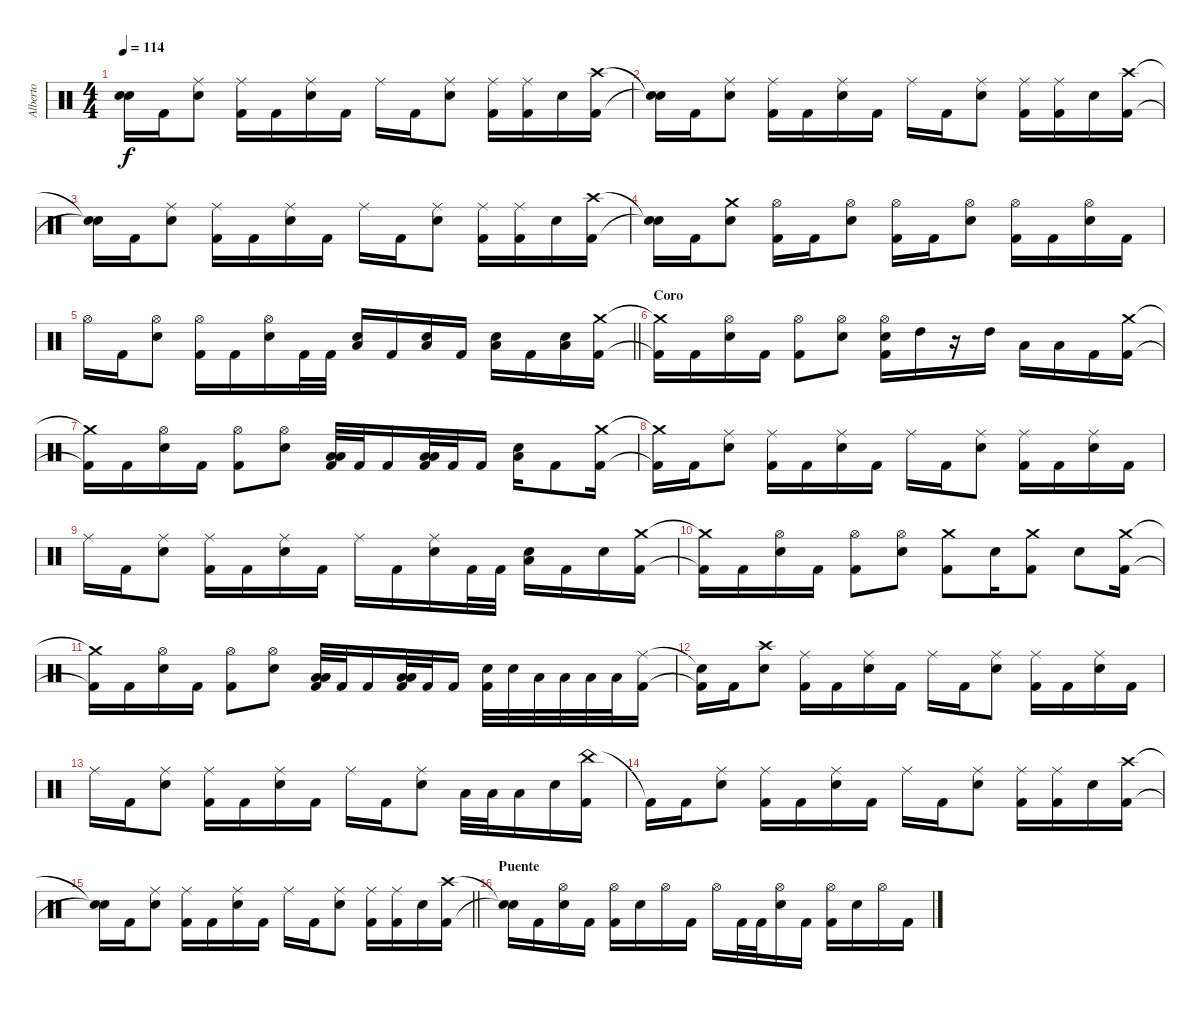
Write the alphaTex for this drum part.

\track ("Alberto" "Alberto") {instrument percussion}
\staff
\articulation defaults
\ts (4 4)
\tempo 114
\clef neutral
\ks c
("Snare (hit)"{t} "Snare (hit)"{t}).16{dy f} "Kick (hit) 2".16 ("Ride (middle)" "Electric Snare (hit)").8 ("Ride (middle)" "Kick (hit) 2").16 "Kick (hit) 2".16 ("Ride (middle)" "Electric Snare (hit)").16 "Kick (hit) 2".16 "Ride (middle)".16 "Kick (hit) 2".16 ("Ride (middle)" "Electric Snare (hit)").8 ("Ride (middle)" "Kick (hit) 2").16 ("Ride (middle)" "Kick (hit) 2").16 "Electric Snare (hit)".16 ("Crash high (hit)" "Kick (hit) 2").16 |
("Snare (hit)"{t} "Snare (hit)"{t}).16 "Kick (hit) 2".16 ("Ride (middle)" "Electric Snare (hit)").8 ("Ride (middle)" "Kick (hit) 2").16 "Kick (hit) 2".16 ("Ride (middle)" "Electric Snare (hit)").16 "Kick (hit) 2".16 "Ride (middle)".16 "Kick (hit) 2".16 ("Ride (middle)" "Electric Snare (hit)").8 ("Ride (middle)" "Kick (hit) 2").16 ("Ride (middle)" "Kick (hit) 2").16 "Electric Snare (hit)".16 ("Crash high (hit)" "Kick (hit) 2").16 |
("Snare (hit)"{t} "Snare (hit)"{t}).16 "Kick (hit) 2".16 ("Ride (middle)" "Electric Snare (hit)").8 ("Ride (middle)" "Kick (hit) 2").16 "Kick (hit) 2".16 ("Ride (middle)" "Electric Snare (hit)").16 "Kick (hit) 2".16 "Ride (middle)".16 "Kick (hit) 2".16 ("Ride (middle)" "Electric Snare (hit)").8 ("Ride (middle)" "Kick (hit) 2").16 ("Ride (middle)" "Kick (hit) 2").16 "Electric Snare (hit)".16 ("Crash high (hit)" "Kick (hit) 2").16 |
("Snare (hit)"{t} "Snare (hit)"{t}).16 "Kick (hit) 2".16 ("Crash medium (hit)" "Electric Snare (hit)").8 ("Hi-Hat (open)" "Kick (hit) 2").16 "Kick (hit) 2".16 ("Hi-Hat (open)" "Electric Snare (hit)").8 ("Hi-Hat (open)" "Kick (hit) 2").16 "Kick (hit) 2".16 ("Hi-Hat (open)" "Electric Snare (hit)").8 ("Hi-Hat (open)" "Kick (hit) 2").16 "Kick (hit) 2".16 ("Hi-Hat (open)" "Electric Snare (hit)").16 "Kick (hit) 2".16 |
\barLineRight lightlight "Hi-Hat (open)".16 "Kick (hit) 2".16
("Hi-Hat (open)" "Electric Snare (hit)").8 ("Hi-Hat (open)" "Kick (hit) 2").16 "Kick (hit) 2".16 ("Hi-Hat (open)" "Electric Snare (hit)").16 "Kick (hit) 2".32 "Kick (hit) 2".32 ("Electric Snare (hit)" "Low Floor Tom (hit)").16 "Kick (hit) 2".16 ("Electric Snare (hit)" "Low Floor Tom (hit)").16 "Kick (hit) 2".16 ("Electric Snare (hit)" "Low Floor Tom (hit)").16 "Kick (hit) 2".16 ("Electric Snare (hit)" "Low Floor Tom (hit)").16 ("Crash medium (hit)" "Kick (hit) 2").16 |
\section ("" "Coro")
("Crash medium (hit)"{t} "Kick (hit) 2"{t}).16 "Kick (hit) 2".16 ("Hi-Hat (open)" "Electric Snare (hit)").16 "Kick (hit) 2".16 ("Hi-Hat (open)" "Kick (hit) 2").8 ("Hi-Hat (open)" "Electric Snare (hit)").8 ("Hi-Hat (open)" "Electric Snare (hit)" "Kick (hit) 2").16 "High Tom (hit)".16 r.16 "High Tom (hit)".16 "Low Tom (hit)".16 "Low Tom (hit)".16 "Kick (hit) 2".16 ("Crash medium (hit)" "Kick (hit) 2").16 |
("Crash medium (hit)"{t} "Kick (hit) 2"{t}).16 "Kick (hit) 2".16 ("Hi-Hat (open)" "Electric Snare (hit)").16 "Kick (hit) 2".16 ("Hi-Hat (open)" "Kick (hit) 2").8 ("Hi-Hat (open)" "Electric Snare (hit)").8 ("Low Tom (hit)" "Low Floor Tom (hit)" "Kick (hit) 2").32 "Kick (hit) 2".32 "Kick (hit) 2".16 ("Low Tom (hit)" "Low Floor Tom (hit)" "Kick (hit) 2").32 "Kick (hit) 2".32 "Kick (hit) 2".16 ("Electric Snare (hit)" "Low Floor Tom (hit)").16 "Kick (hit) 2".8 ("Crash medium (hit)" "Kick (hit) 2").16 |
("Crash medium (hit)"{t} "Kick (hit) 2"{t}).16 "Kick (hit) 2".16 ("Ride (middle)" "Electric Snare (hit)").8 ("Ride (middle)" "Kick (hit) 2").16 "Kick (hit) 2".16 ("Ride (middle)" "Electric Snare (hit)").16 "Kick (hit) 2".16 "Ride (middle)".16 "Kick (hit) 2".16 ("Ride (middle)" "Electric Snare (hit)").8 ("Ride (middle)" "Kick (hit) 2").16 "Kick (hit) 2".16 ("Ride (middle)" "Electric Snare (hit)").16 "Kick (hit) 2".16 |
"Ride (middle)".16 "Kick (hit) 2".16 ("Ride (middle)" "Electric Snare (hit)").8 ("Ride (middle)" "Kick (hit) 2").16 "Kick (hit) 2".16 ("Ride (middle)" "Electric Snare (hit)").16 "Kick (hit) 2".16 "Ride (middle)".16 "Kick (hit) 2".16 ("Ride (middle)" "Electric Snare (hit)").16 "Kick (hit) 2".32 "Kick (hit) 2".32 ("Electric Snare (hit)" "Low Floor Tom (hit)").16 "Kick (hit) 2".16 "Electric Snare (hit)".16 ("Crash medium (hit)" "Kick (hit) 2").16 |
("Crash medium (hit)"{t} "Kick (hit) 2"{t}).16 "Kick (hit) 2".16 ("Hi-Hat (open)" "Electric Snare (hit)").16 "Kick (hit) 2".16 ("Hi-Hat (open)" "Kick (hit) 2").8 ("Hi-Hat (open)" "Electric Snare (hit)").8 ("Crash medium (hit)" "Kick (hit) 2").8 "Electric Snare (hit)".16 ("Crash medium (hit)" "Kick (hit) 2").8 "Electric Snare (hit)".8 ("Crash medium (hit)" "Kick (hit) 2").16 |
("Crash medium (hit)"{t} "Kick (hit) 2"{t}).16 "Kick (hit) 2".16 ("Hi-Hat (open)" "Electric Snare (hit)").16 "Kick (hit) 2".16 ("Hi-Hat (open)" "Kick (hit) 2").8 ("Hi-Hat (open)" "Electric Snare (hit)").8 ("Low Tom (hit)" "Low Floor Tom (hit)" "Kick (hit) 2").32 "Kick (hit) 2".32 "Kick (hit) 2".16 ("Low Tom (hit)" "Low Floor Tom (hit)" "Kick (hit) 2").32 "Kick (hit) 2".32 "Kick (hit) 2".16 ("Electric Snare (hit)" "Kick (hit) 2").32 "Electric Snare (hit)".32 "Low Tom (hit)".32 "Low Tom (hit)".32 "Low Floor Tom (hit)".32 "Low Floor Tom (hit)".32 ("Ride (middle)" "Kick (hit) 2").16 |
("Snare (hit)"{t} "Kick (hit) 2"{t}).16 "Kick (hit) 2".16 ("Crash high (hit)" "Electric Snare (hit)").8 ("Ride (middle)" "Kick (hit) 2").16 "Kick (hit) 2".16 ("Ride (middle)" "Electric Snare (hit)").16 "Kick (hit) 2".16 "Ride (middle)".16 "Kick (hit) 2".16 ("Ride (middle)" "Electric Snare (hit)").8 ("Ride (middle)" "Kick (hit) 2").16 "Kick (hit) 2".16 ("Ride (middle)" "Electric Snare (hit)").16 "Kick (hit) 2".16 |
"Ride (middle)".16 "Kick (hit) 2".16 ("Ride (middle)" "Electric Snare (hit)").8 ("Ride (middle)" "Kick (hit) 2").16 "Kick (hit) 2".16 ("Ride (middle)" "Electric Snare (hit)").16 "Kick (hit) 2".16 "Ride (middle)".16 "Kick (hit) 2".16 ("Ride (middle)" "Electric Snare (hit)").8 "Low Tom (hit)".32 "Low Tom (hit)".32 "Low Floor Tom (hit)".16 "Electric Snare (hit)".16 ("China (hit)" "Kick (hit) 2").16 |
"Kick (hit) 2"{t}.16 "Kick (hit) 2".16 ("Ride (middle)" "Electric Snare (hit)").8 ("Ride (middle)" "Kick (hit) 2").16 "Kick (hit) 2".16 ("Ride (middle)" "Electric Snare (hit)").16 "Kick (hit) 2".16 "Ride (middle)".16 "Kick (hit) 2".16 ("Ride (middle)" "Electric Snare (hit)").8 ("Ride (middle)" "Kick (hit) 2").16 ("Ride (middle)" "Kick (hit) 2").16 "Electric Snare (hit)".16 ("Crash high (hit)" "Kick (hit) 2").16 |
\barLineRight lightlight
("Snare (hit)"{t} "Snare (hit)"{t}).16 "Kick (hit) 2".16 ("Ride (middle)" "Electric Snare (hit)").8 ("Ride (middle)" "Kick (hit) 2").16 "Kick (hit) 2".16 ("Ride (middle)" "Electric Snare (hit)").16 "Kick (hit) 2".16 "Ride (middle)".16 "Kick (hit) 2".16 ("Ride (middle)" "Electric Snare (hit)").8 ("Ride (middle)" "Kick (hit) 2").16 ("Ride (middle)" "Kick (hit) 2").16 "Electric Snare (hit)".16 ("Crash high (hit)" "Kick (hit) 2").16 |
\section ("" "Puente")
("Snare (hit)"{t} "Snare (hit)"{t}).16 "Kick (hit) 2".16 ("Hi-Hat (open)" "Electric Snare (hit)").16 "Kick (hit) 2".16 ("Hi-Hat (open)" "Kick (hit) 2").16 "Electric Snare (hit)".16 "Hi-Hat (open)".16 "Kick (hit) 2".16 "Hi-Hat (open)".16 "Kick (hit) 2".32 "Kick (hit) 2".32 ("Hi-Hat (open)" "Electric Snare (hit)").16 "Kick (hit) 2".16 ("Hi-Hat (open)" "Kick (hit) 2").16 "Electric Snare (hit)".16 "Hi-Hat (open)".16 "Kick (hit) 2".16
